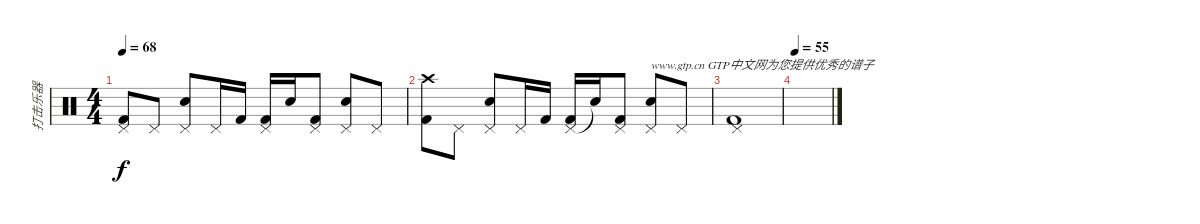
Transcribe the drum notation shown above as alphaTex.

\track ("打击乐器" "打击乐器") {instrument percussion}
\staff {score}
\articulation defaults
\ts (4 4)
\tempo 68
\clef neutral
\ks c
("Pedal Hi-Hat (hit)" "Kick (hit) 2").8{dy f} "Pedal Hi-Hat (hit)".8 ("Electric Snare (hit)" "Pedal Hi-Hat (hit)").8 "Pedal Hi-Hat (hit)".16 "Kick (hit) 2".16 ("Pedal Hi-Hat (hit)" "Kick (hit) 2").16 "Electric Snare (hit)".16 ("Kick (hit) 2" "Pedal Hi-Hat (hit)").8 ("Electric Snare (hit)" "Pedal Hi-Hat (hit)").8 "Pedal Hi-Hat (hit)".8 |
("Crash high (hit)" "Kick (hit) 2").8 "Pedal Hi-Hat (hit)".8 ("Electric Snare (hit)" "Pedal Hi-Hat (hit)").8 "Pedal Hi-Hat (hit)".16 "Kick (hit) 2".16 ("Pedal Hi-Hat (hit)" "Kick (hit) 2").16 "Electric Snare (hit)"{t}.16 ("Kick (hit) 2" "Pedal Hi-Hat (hit)").8 ("Electric Snare (hit)" "Pedal Hi-Hat (hit)").8{txt "www.gtp.cn GTP中文网为您提供优秀的谱子"} "Pedal Hi-Hat (hit)".8 |
("Pedal Hi-Hat (hit)" "Kick (hit) 2").1 |
\tempo 55
